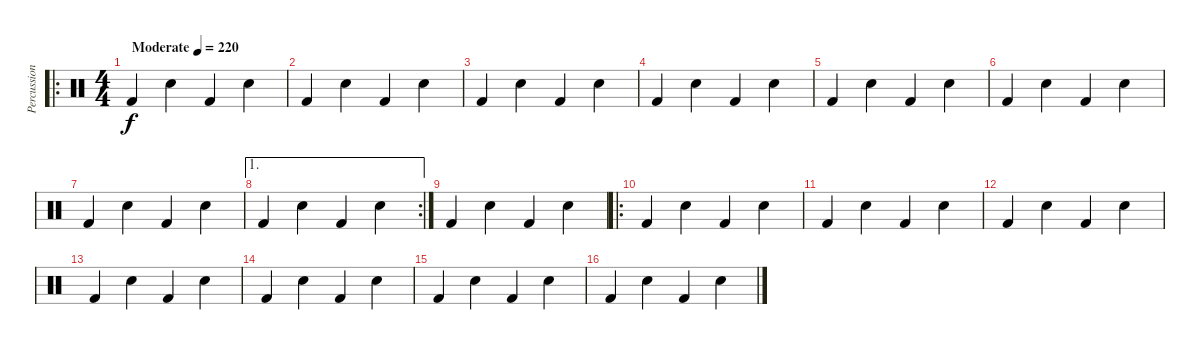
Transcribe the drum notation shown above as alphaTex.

\track ("Percussions" "Percussion") {instrument percussion}
\staff {score}
\articulation defaults
\ro
\ts (4 4)
\tempo (220 "Moderate")
\clef neutral
\ks c "Kick (hit) 2".4{dy f} "Snare (hit) 2".4 "Kick (hit) 2".4 "Snare (hit) 2".4
|
"Kick (hit) 2".4 "Snare (hit) 2".4 "Kick (hit) 2".4 "Snare (hit) 2".4 |
"Kick (hit) 2".4 "Snare (hit) 2".4 "Kick (hit) 2".4 "Snare (hit) 2".4 |
"Kick (hit) 2".4 "Snare (hit) 2".4 "Kick (hit) 2".4 "Snare (hit) 2".4 |
"Kick (hit) 2".4 "Snare (hit) 2".4 "Kick (hit) 2".4 "Snare (hit) 2".4 |
"Kick (hit) 2".4 "Snare (hit) 2".4 "Kick (hit) 2".4 "Snare (hit) 2".4 |
"Kick (hit) 2".4 "Snare (hit) 2".4 "Kick (hit) 2".4 "Snare (hit) 2".4 |
\ae 1
\rc 2 "Kick (hit) 2".4 "Snare (hit) 2".4 "Kick (hit) 2".4 "Snare (hit) 2".4
|
"Kick (hit) 2".4 "Snare (hit) 2".4 "Kick (hit) 2".4 "Snare (hit) 2".4 |
\ro "Kick (hit) 2".4 "Snare (hit) 2".4 "Kick (hit) 2".4 "Snare (hit) 2".4
|
"Kick (hit) 2".4 "Snare (hit) 2".4 "Kick (hit) 2".4 "Snare (hit) 2".4 |
"Kick (hit) 2".4 "Snare (hit) 2".4 "Kick (hit) 2".4 "Snare (hit) 2".4 |
"Kick (hit) 2".4 "Snare (hit) 2".4 "Kick (hit) 2".4 "Snare (hit) 2".4 |
"Kick (hit) 2".4 "Snare (hit) 2".4 "Kick (hit) 2".4 "Snare (hit) 2".4 |
"Kick (hit) 2".4 "Snare (hit) 2".4 "Kick (hit) 2".4 "Snare (hit) 2".4 |
"Kick (hit) 2".4 "Snare (hit) 2".4 "Kick (hit) 2".4 "Snare (hit) 2".4
